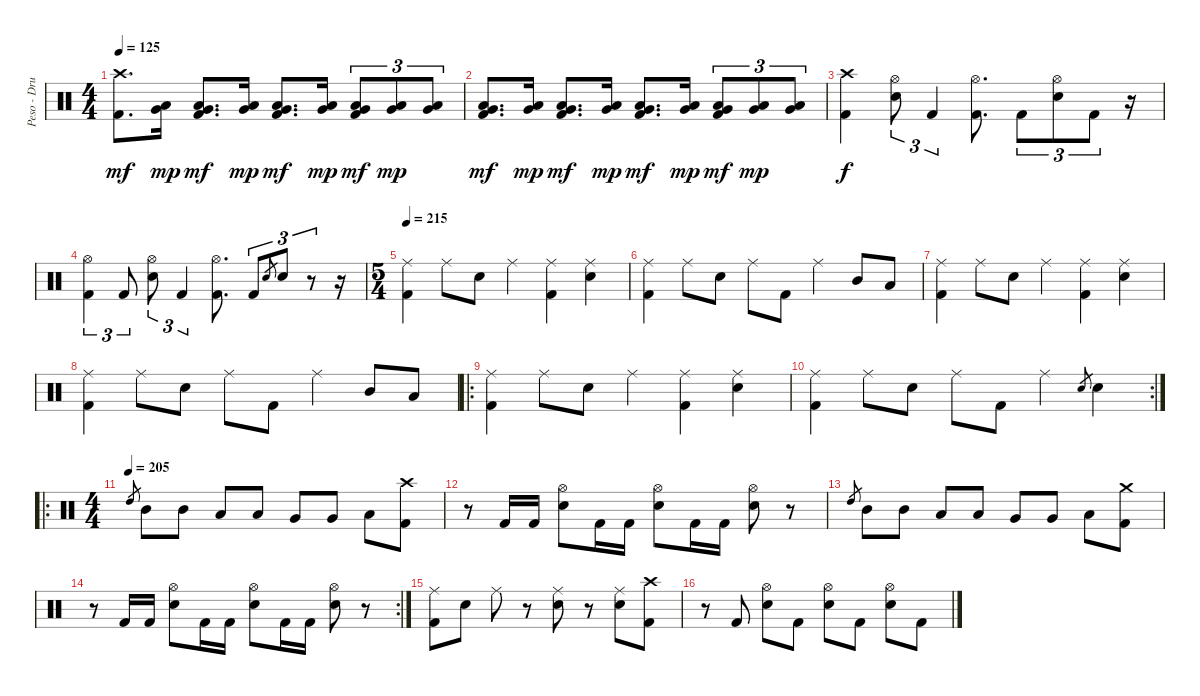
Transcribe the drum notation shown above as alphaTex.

\track ("Peso - Drums" "Peso - Dru") {instrument percussion}
\staff {score}
\articulation defaults
\ts (4 4)
\tempo 125
\clef neutral
\ks c
("Crash high (hit)" "Kick (hit) 2").8{d dy mf} ("Very Low Tom (hit)" "Low Floor Tom (hit)").16{dy mp} ("Very Low Tom (hit)" "Low Floor Tom (hit)" "Kick (hit) 2").8{d dy mf} ("Very Low Tom (hit)" "Low Floor Tom (hit)").16{dy mp} ("Very Low Tom (hit)" "Low Floor Tom (hit)" "Kick (hit) 2").8{d dy mf} ("Very Low Tom (hit)" "Low Floor Tom (hit)").16{dy mp} ("Very Low Tom (hit)" "Low Floor Tom (hit)" "Kick (hit) 2").8{tu (3 2) dy mf} ("Very Low Tom (hit)" "Low Floor Tom (hit)").8{tu (3 2) dy mp} ("Very Low Tom (hit)" "Low Floor Tom (hit)").8{tu (3 2)} |
("Very Low Tom (hit)" "Low Floor Tom (hit)" "Kick (hit) 2").8{d dy mf} ("Very Low Tom (hit)" "Low Floor Tom (hit)").16{dy mp} ("Very Low Tom (hit)" "Low Floor Tom (hit)" "Kick (hit) 2").8{d dy mf} ("Very Low Tom (hit)" "Low Floor Tom (hit)").16{dy mp} ("Very Low Tom (hit)" "Low Floor Tom (hit)" "Kick (hit) 2").8{d dy mf} ("Very Low Tom (hit)" "Low Floor Tom (hit)").16{dy mp} ("Very Low Tom (hit)" "Low Floor Tom (hit)" "Kick (hit) 2").8{tu (3 2) dy mf} ("Very Low Tom (hit)" "Low Floor Tom (hit)").8{tu (3 2) dy mp} ("Very Low Tom (hit)" "Low Floor Tom (hit)").8{tu (3 2)} |
("Crash high (hit)" "Kick (hit) 2").4{dy f} ("Hi-Hat (open)" "Electric Snare (hit)").8{tu (3 2)} "Kick (hit) 2".4{tu (3 2)} ("Hi-Hat (open)" "Kick (hit) 2").8{d} "Kick (hit) 2".8{tu (3 2)} ("Hi-Hat (open)" "Electric Snare (hit)").8{tu (3 2)} "Kick (hit) 2".8{tu (3 2)} r.16 |
("Hi-Hat (open)" "Kick (hit) 2").4{tu (3 2)} "Kick (hit) 2".8{tu (3 2)} ("Hi-Hat (open)" "Electric Snare (hit)").8{tu (3 2)} "Kick (hit) 2".4{tu (3 2)} ("Hi-Hat (open)" "Kick (hit) 2").8{d} "Kick (hit) 2".8{tu (3 2)} "Electric Snare (hit)".8{gr} "Electric Snare (hit)".8{tu (3 2)} r.8{tu (3 2)} r.16 |
\ts (5 4)
\tempo 215
("Ride (middle)" "Kick (hit) 2").4 "Ride (middle)".8 "Electric Snare (hit)".8 "Ride (middle)".4 ("Ride (middle)" "Kick (hit) 2").4 ("Ride (middle)" "Electric Snare (hit)").4 |
("Ride (middle)" "Kick (hit) 2").4 "Ride (middle)".8 "Electric Snare (hit)".8 "Ride (middle)".8 "Kick (hit) 2".8 "Ride (middle)".4 "Mid Tom (hit)".8 "Low Tom (hit)".8 |
("Ride (middle)" "Kick (hit) 2").4 "Ride (middle)".8 "Electric Snare (hit)".8 "Ride (middle)".4 ("Ride (middle)" "Kick (hit) 2").4 ("Ride (middle)" "Electric Snare (hit)").4 |
("Ride (middle)" "Kick (hit) 2").4 "Ride (middle)".8 "Electric Snare (hit)".8 "Ride (middle)".8 "Kick (hit) 2".8 "Ride (middle)".4 "Mid Tom (hit)".8 "Low Tom (hit)".8 |
\ro
("Ride (middle)" "Kick (hit) 2").4 "Ride (middle)".8 "Electric Snare (hit)".8 "Ride (middle)".4 ("Ride (middle)" "Kick (hit) 2").4 ("Ride (middle)" "Electric Snare (hit)").4 |
\rc 2
("Ride (middle)" "Kick (hit) 2").4 "Ride (middle)".8 "Electric Snare (hit)".8 "Ride (middle)".8 "Kick (hit) 2".8 "Ride (middle)".4 "Electric Snare (hit)".8{gr} "Electric Snare (hit)".4 |
\ro
\ts (4 4)
\tempo (205)
"High Tom (hit)".8{gr} "Mid Tom (hit)".8 "Mid Tom (hit)".8 "Low Tom (hit)".8 "Low Tom (hit)".8 "Very Low Tom (hit)".8 "Very Low Tom (hit)".8 "Low Floor Tom (hit)".8 ("Crash high (hit)" "Kick (hit) 2").8 |
r.8 "Kick (hit) 2".16 "Kick (hit) 2".16 ("Hi-Hat (open)" "Electric Snare (hit)").8 "Kick (hit) 2".16 "Kick (hit) 2".16 ("Hi-Hat (open)" "Electric Snare (hit)").8 "Kick (hit) 2".16 "Kick (hit) 2".16 ("Hi-Hat (open)" "Electric Snare (hit)").8 r.8 |
"High Tom (hit)".8{gr} "Mid Tom (hit)".8 "Mid Tom (hit)".8 "Low Tom (hit)".8 "Low Tom (hit)".8 "Very Low Tom (hit)".8 "Very Low Tom (hit)".8 "Low Floor Tom (hit)".8 ("Crash medium (hit)" "Kick (hit) 2").8 |
\rc 2
r.8 "Kick (hit) 2".16 "Kick (hit) 2".16 ("Hi-Hat (open)" "Electric Snare (hit)").8 "Kick (hit) 2".16 "Kick (hit) 2".16 ("Hi-Hat (open)" "Electric Snare (hit)").8 "Kick (hit) 2".16 "Kick (hit) 2".16 ("Hi-Hat (open)" "Electric Snare (hit)").8 r.8 |
("Ride (middle)" "Kick (hit) 2").8 "Electric Snare (hit)".8 "Ride (middle)".8 r.8 ("Ride (middle)" "Electric Snare (hit)").8 r.8 ("Ride (middle)" "Electric Snare (hit)").8 ("Crash high (hit)" "Kick (hit) 2").8 |
r.8 "Kick (hit) 2".8 ("Hi-Hat (open)" "Electric Snare (hit)").8 "Kick (hit) 2".8 ("Hi-Hat (open)" "Electric Snare (hit)").8 "Kick (hit) 2".8 ("Hi-Hat (open)" "Electric Snare (hit)").8 "Kick (hit) 2".8
